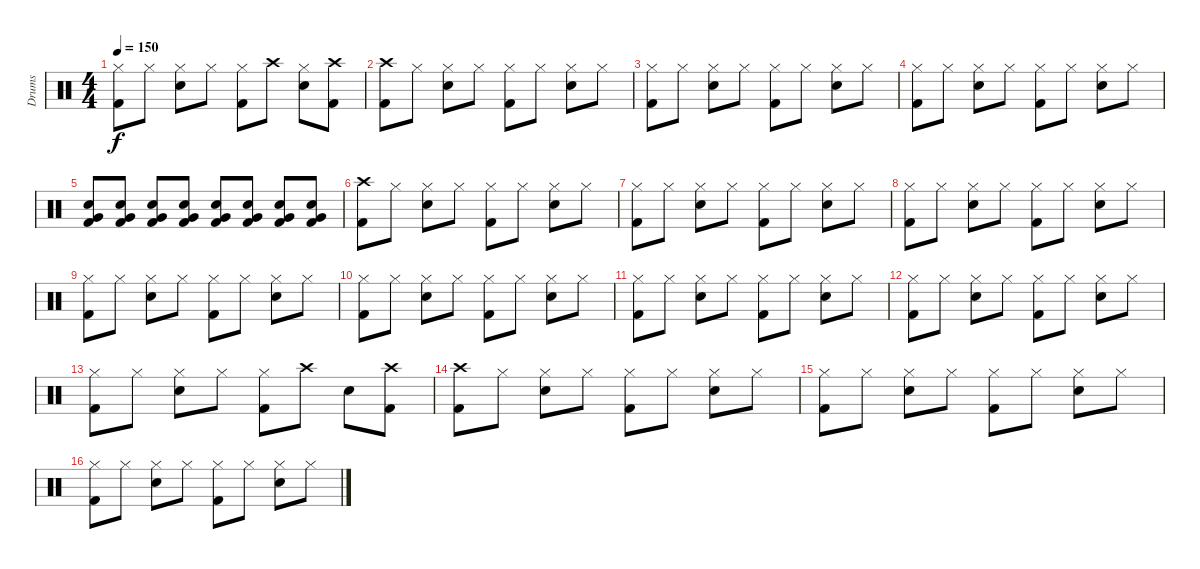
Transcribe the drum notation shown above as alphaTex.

\track ("Drums" "Drums") {instrument percussion}
\staff {score}
\articulation defaults
\ts (4 4)
\tempo 150
\clef neutral
\ks c
("Hi-Hat (closed)" "Kick (hit) 2").8{dy f} "Hi-Hat (closed)".8 ("Hi-Hat (closed)" "Electric Snare (hit)").8 "Hi-Hat (closed)".8 ("Hi-Hat (closed)" "Kick (hit) 2").8 "Crash high (hit)".8 ("Hi-Hat (closed)" "Electric Snare (hit)").8 ("Crash high (hit)" "Kick (hit) 2").8 |
("Crash high (hit)" "Kick (hit) 2").8 "Hi-Hat (closed)".8 ("Hi-Hat (closed)" "Electric Snare (hit)").8 "Hi-Hat (closed)".8 ("Hi-Hat (closed)" "Kick (hit) 2").8 "Hi-Hat (closed)".8 ("Hi-Hat (closed)" "Electric Snare (hit)").8 "Hi-Hat (closed)".8 |
("Hi-Hat (closed)" "Kick (hit) 2").8 "Hi-Hat (closed)".8 ("Hi-Hat (closed)" "Electric Snare (hit)").8 "Hi-Hat (closed)".8 ("Hi-Hat (closed)" "Kick (hit) 2").8 "Hi-Hat (closed)".8 ("Hi-Hat (closed)" "Electric Snare (hit)").8 "Hi-Hat (closed)".8 |
("Hi-Hat (closed)" "Kick (hit) 2").8 "Hi-Hat (closed)".8 ("Hi-Hat (closed)" "Electric Snare (hit)").8 "Hi-Hat (closed)".8 ("Hi-Hat (closed)" "Kick (hit) 2").8 "Hi-Hat (closed)".8 ("Hi-Hat (closed)" "Electric Snare (hit)").8 "Hi-Hat (closed)".8 |
("Electric Snare (hit)" "Very Low Tom (hit)" "Kick (hit) 2").8 ("Electric Snare (hit)" "Very Low Tom (hit)" "Kick (hit) 2").8 ("Electric Snare (hit)" "Very Low Tom (hit)" "Kick (hit) 2").8 ("Electric Snare (hit)" "Very Low Tom (hit)" "Kick (hit) 2").8 ("Electric Snare (hit)" "Very Low Tom (hit)" "Kick (hit) 2").8 ("Electric Snare (hit)" "Very Low Tom (hit)" "Kick (hit) 2").8 ("Electric Snare (hit)" "Very Low Tom (hit)" "Kick (hit) 2").8 ("Electric Snare (hit)" "Very Low Tom (hit)" "Kick (hit) 2").8 |
("Crash high (hit)" "Kick (hit) 2").8 "Hi-Hat (closed)".8 ("Hi-Hat (closed)" "Electric Snare (hit)").8 "Hi-Hat (closed)".8 ("Hi-Hat (closed)" "Kick (hit) 2").8 "Hi-Hat (closed)".8 ("Hi-Hat (closed)" "Electric Snare (hit)").8 "Hi-Hat (closed)".8 |
("Hi-Hat (closed)" "Kick (hit) 2").8 "Hi-Hat (closed)".8 ("Hi-Hat (closed)" "Electric Snare (hit)").8 "Hi-Hat (closed)".8 ("Hi-Hat (closed)" "Kick (hit) 2").8 "Hi-Hat (closed)".8 ("Hi-Hat (closed)" "Electric Snare (hit)").8 "Hi-Hat (closed)".8 |
("Hi-Hat (closed)" "Kick (hit) 2").8 "Hi-Hat (closed)".8 ("Hi-Hat (closed)" "Electric Snare (hit)").8 "Hi-Hat (closed)".8 ("Hi-Hat (closed)" "Kick (hit) 2").8 "Hi-Hat (closed)".8 ("Hi-Hat (closed)" "Electric Snare (hit)").8 "Hi-Hat (closed)".8 |
("Hi-Hat (closed)" "Kick (hit) 2").8 "Hi-Hat (closed)".8 ("Hi-Hat (closed)" "Electric Snare (hit)").8 "Hi-Hat (closed)".8 ("Hi-Hat (closed)" "Kick (hit) 2").8 "Hi-Hat (closed)".8 ("Hi-Hat (closed)" "Electric Snare (hit)").8 "Hi-Hat (closed)".8 |
("Hi-Hat (closed)" "Kick (hit) 2").8 "Hi-Hat (closed)".8 ("Hi-Hat (closed)" "Electric Snare (hit)").8 "Hi-Hat (closed)".8 ("Hi-Hat (closed)" "Kick (hit) 2").8 "Hi-Hat (closed)".8 ("Hi-Hat (closed)" "Electric Snare (hit)").8 "Hi-Hat (closed)".8 |
("Hi-Hat (closed)" "Kick (hit) 2").8 "Hi-Hat (closed)".8 ("Hi-Hat (closed)" "Electric Snare (hit)").8 "Hi-Hat (closed)".8 ("Hi-Hat (closed)" "Kick (hit) 2").8 "Hi-Hat (closed)".8 ("Hi-Hat (closed)" "Electric Snare (hit)").8 "Hi-Hat (closed)".8 |
("Hi-Hat (closed)" "Kick (hit) 2").8 "Hi-Hat (closed)".8 ("Hi-Hat (closed)" "Electric Snare (hit)").8 "Hi-Hat (closed)".8 ("Hi-Hat (closed)" "Kick (hit) 2").8 "Hi-Hat (closed)".8 ("Hi-Hat (closed)" "Electric Snare (hit)").8 "Hi-Hat (closed)".8 |
("Hi-Hat (closed)" "Kick (hit) 2").8 "Hi-Hat (closed)".8 ("Hi-Hat (closed)" "Electric Snare (hit)").8 "Hi-Hat (closed)".8 ("Hi-Hat (closed)" "Kick (hit) 2").8 "Crash high (hit)".8 "Electric Snare (hit)".8 ("Crash high (hit)" "Kick (hit) 2").8 |
("Crash high (hit)" "Kick (hit) 2").8 "Hi-Hat (closed)".8 ("Hi-Hat (closed)" "Electric Snare (hit)").8 "Hi-Hat (closed)".8 ("Hi-Hat (closed)" "Kick (hit) 2").8 "Hi-Hat (closed)".8 ("Hi-Hat (closed)" "Electric Snare (hit)").8 "Hi-Hat (closed)".8 |
("Hi-Hat (closed)" "Kick (hit) 2").8 "Hi-Hat (closed)".8 ("Hi-Hat (closed)" "Electric Snare (hit)").8 "Hi-Hat (closed)".8 ("Hi-Hat (closed)" "Kick (hit) 2").8 "Hi-Hat (closed)".8 ("Hi-Hat (closed)" "Electric Snare (hit)").8 "Hi-Hat (closed)".8 |
("Hi-Hat (closed)" "Kick (hit) 2").8 "Hi-Hat (closed)".8 ("Hi-Hat (closed)" "Electric Snare (hit)").8 "Hi-Hat (closed)".8 ("Hi-Hat (closed)" "Kick (hit) 2").8 "Hi-Hat (closed)".8 ("Hi-Hat (closed)" "Electric Snare (hit)").8 "Hi-Hat (closed)".8
